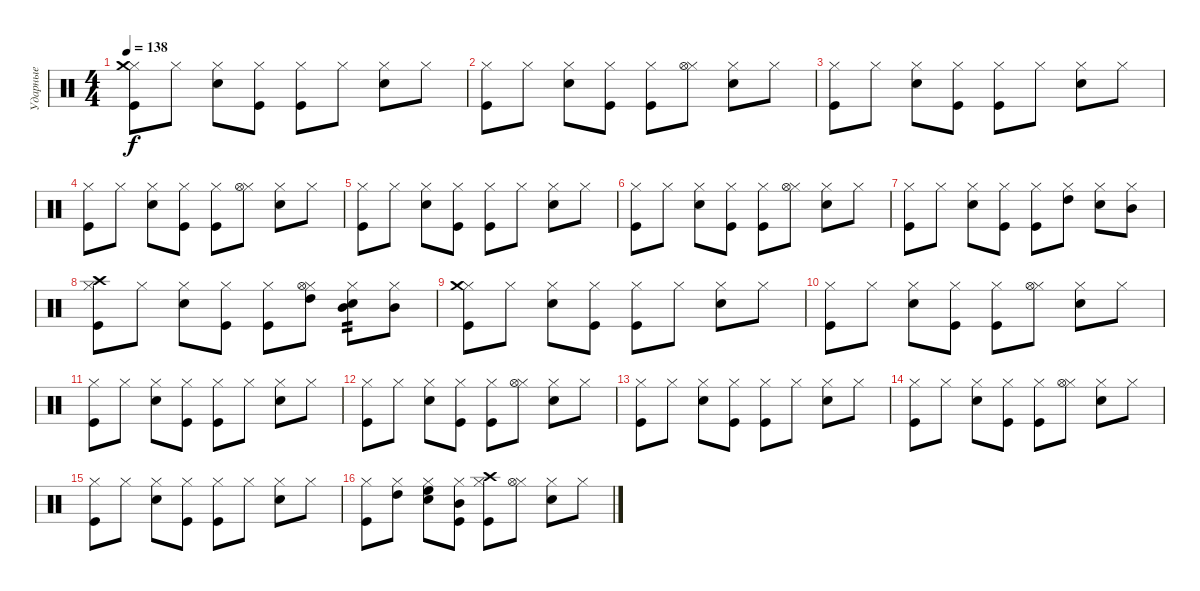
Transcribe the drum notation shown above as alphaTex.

\track ("Ударные" "Ударные") {instrument percussion}
\staff {score}
\articulation defaults
\ts (4 4)
\tempo 138
\clef neutral
\ks c
("Hi-Hat (closed)" "Kick (hit)" "Crash medium (hit)").8{dy f} "Hi-Hat (closed)".8 ("Hi-Hat (closed)" "Snare (hit) 2").8 ("Hi-Hat (closed)" "Kick (hit)").8 ("Hi-Hat (closed)" "Kick (hit)").8 "Hi-Hat (closed)".8 ("Hi-Hat (closed)" "Snare (hit) 2").8 "Hi-Hat (closed)".8 |
("Hi-Hat (closed)" "Kick (hit)").8 "Hi-Hat (closed)".8 ("Hi-Hat (closed)" "Snare (hit) 2").8 ("Hi-Hat (closed)" "Kick (hit)").8 ("Hi-Hat (closed)" "Kick (hit)").8 ("Hi-Hat (closed)" "Hi-Hat (open)").8 ("Hi-Hat (closed)" "Snare (hit) 2").8 "Hi-Hat (closed)".8 |
("Hi-Hat (closed)" "Kick (hit)").8 "Hi-Hat (closed)".8 ("Hi-Hat (closed)" "Snare (hit) 2").8 ("Hi-Hat (closed)" "Kick (hit)").8 ("Hi-Hat (closed)" "Kick (hit)").8 "Hi-Hat (closed)".8 ("Hi-Hat (closed)" "Snare (hit) 2").8 "Hi-Hat (closed)".8 |
("Hi-Hat (closed)" "Kick (hit)").8 "Hi-Hat (closed)".8 ("Hi-Hat (closed)" "Snare (hit) 2").8 ("Hi-Hat (closed)" "Kick (hit)").8 ("Hi-Hat (closed)" "Kick (hit)").8 ("Hi-Hat (closed)" "Hi-Hat (open)").8 ("Hi-Hat (closed)" "Snare (hit) 2").8 "Hi-Hat (closed)".8 |
("Hi-Hat (closed)" "Kick (hit)").8 "Hi-Hat (closed)".8 ("Hi-Hat (closed)" "Snare (hit) 2").8 ("Hi-Hat (closed)" "Kick (hit)").8 ("Hi-Hat (closed)" "Kick (hit)").8 "Hi-Hat (closed)".8 ("Hi-Hat (closed)" "Snare (hit) 2").8 "Hi-Hat (closed)".8 |
("Hi-Hat (closed)" "Kick (hit)").8 "Hi-Hat (closed)".8 ("Hi-Hat (closed)" "Snare (hit) 2").8 ("Hi-Hat (closed)" "Kick (hit)").8 ("Hi-Hat (closed)" "Kick (hit)").8 ("Hi-Hat (closed)" "Hi-Hat (open)").8 ("Hi-Hat (closed)" "Snare (hit) 2").8 "Hi-Hat (closed)".8 |
("Hi-Hat (closed)" "Kick (hit)").8 "Hi-Hat (closed)".8 ("Hi-Hat (closed)" "Snare (hit) 2").8 ("Hi-Hat (closed)" "Kick (hit)").8 ("Hi-Hat (closed)" "Kick (hit)").8 ("Hi-Hat (closed)" "High Tom (hit)").8 ("Hi-Hat (closed)" "Snare (hit) 2").8 ("Hi-Hat (closed)" "Mid Tom (hit)").8 |
("Hi-Hat (closed)" "Kick (hit)" "Crash high (hit)").8 "Hi-Hat (closed)".8 ("Hi-Hat (closed)" "Snare (hit) 2").8 ("Hi-Hat (closed)" "Kick (hit)").8 ("Hi-Hat (closed)" "Kick (hit)").8 ("Hi-Hat (closed)" "Hi-Hat (open)" "High Tom (hit)").8 ("Hi-Hat (closed)" "Snare (hit) 2" "Mid Tom (hit)").8{tp 2} ("Hi-Hat (closed)" "Mid Tom (hit)").8 |
("Hi-Hat (closed)" "Kick (hit)" "Crash medium (hit)").8 "Hi-Hat (closed)".8 ("Hi-Hat (closed)" "Snare (hit) 2").8 ("Hi-Hat (closed)" "Kick (hit)").8 ("Hi-Hat (closed)" "Kick (hit)").8 "Hi-Hat (closed)".8 ("Hi-Hat (closed)" "Snare (hit) 2").8 "Hi-Hat (closed)".8 |
("Hi-Hat (closed)" "Kick (hit)").8 "Hi-Hat (closed)".8 ("Hi-Hat (closed)" "Snare (hit) 2").8 ("Hi-Hat (closed)" "Kick (hit)").8 ("Hi-Hat (closed)" "Kick (hit)").8 ("Hi-Hat (closed)" "Hi-Hat (open)").8 ("Hi-Hat (closed)" "Snare (hit) 2").8 "Hi-Hat (closed)".8 |
("Hi-Hat (closed)" "Kick (hit)").8 "Hi-Hat (closed)".8 ("Hi-Hat (closed)" "Snare (hit) 2").8 ("Hi-Hat (closed)" "Kick (hit)").8 ("Hi-Hat (closed)" "Kick (hit)").8 "Hi-Hat (closed)".8 ("Hi-Hat (closed)" "Snare (hit) 2").8 "Hi-Hat (closed)".8 |
("Hi-Hat (closed)" "Kick (hit)").8 "Hi-Hat (closed)".8 ("Hi-Hat (closed)" "Snare (hit) 2").8 ("Hi-Hat (closed)" "Kick (hit)").8 ("Hi-Hat (closed)" "Kick (hit)").8 ("Hi-Hat (closed)" "Hi-Hat (open)").8 ("Hi-Hat (closed)" "Snare (hit) 2").8 "Hi-Hat (closed)".8 |
("Hi-Hat (closed)" "Kick (hit)").8 "Hi-Hat (closed)".8 ("Hi-Hat (closed)" "Snare (hit) 2").8 ("Hi-Hat (closed)" "Kick (hit)").8 ("Hi-Hat (closed)" "Kick (hit)").8 "Hi-Hat (closed)".8 ("Hi-Hat (closed)" "Snare (hit) 2").8 "Hi-Hat (closed)".8 |
("Hi-Hat (closed)" "Kick (hit)").8 "Hi-Hat (closed)".8 ("Hi-Hat (closed)" "Snare (hit) 2").8 ("Hi-Hat (closed)" "Kick (hit)").8 ("Hi-Hat (closed)" "Kick (hit)").8 ("Hi-Hat (closed)" "Hi-Hat (open)").8 ("Hi-Hat (closed)" "Snare (hit) 2").8 "Hi-Hat (closed)".8 |
("Hi-Hat (closed)" "Kick (hit)").8 "Hi-Hat (closed)".8 ("Hi-Hat (closed)" "Snare (hit) 2").8 ("Hi-Hat (closed)" "Kick (hit)").8 ("Hi-Hat (closed)" "Kick (hit)").8 "Hi-Hat (closed)".8 ("Hi-Hat (closed)" "Snare (hit) 2").8 "Hi-Hat (closed)".8 |
("Hi-Hat (closed)" "Kick (hit)").8 ("Hi-Hat (closed)" "High Tom (hit)").8 ("Hi-Hat (closed)" "Snare (hit) 2" "High Floor Tom (hit)").8 ("Hi-Hat (closed)" "Kick (hit)" "Mid Tom (hit)").8 ("Hi-Hat (closed)" "Kick (hit)" "Crash high (hit)").8 ("Hi-Hat (closed)" "Hi-Hat (open)").8 ("Hi-Hat (closed)" "Snare (hit) 2").8 "Hi-Hat (closed)".8
